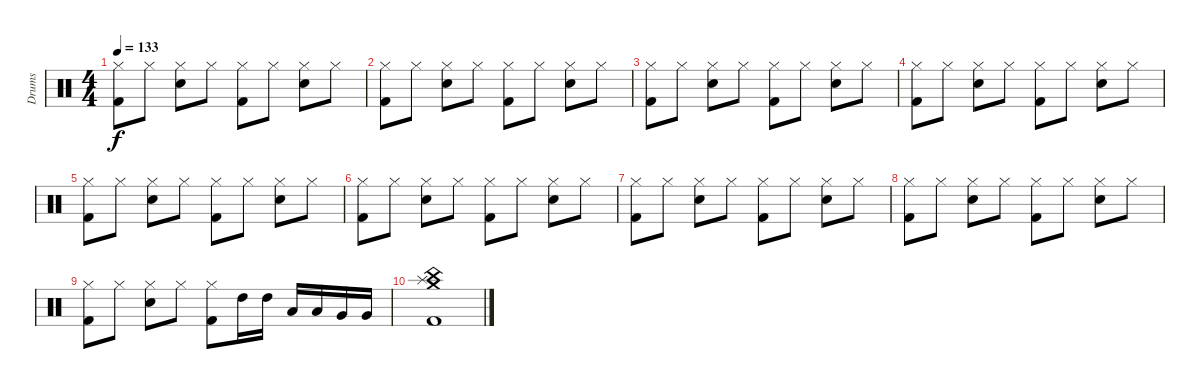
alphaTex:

\track ("Drums" "Drums") {instrument percussion}
\staff {score}
\articulation defaults
\ts (4 4)
\tempo 133
\clef neutral
\ks c
("Kick (hit) 2" "Hi-Hat (closed)").8{dy f} "Hi-Hat (closed)".8 ("Snare (hit) 2" "Hi-Hat (closed)").8 "Hi-Hat (closed)".8 ("Kick (hit) 2" "Hi-Hat (closed)").8 "Hi-Hat (closed)".8 ("Snare (hit) 2" "Hi-Hat (closed)").8 "Hi-Hat (closed)".8 |
("Kick (hit) 2" "Hi-Hat (closed)").8 "Hi-Hat (closed)".8 ("Snare (hit) 2" "Hi-Hat (closed)").8 "Hi-Hat (closed)".8 ("Kick (hit) 2" "Hi-Hat (closed)").8 "Hi-Hat (closed)".8 ("Snare (hit) 2" "Hi-Hat (closed)").8 "Hi-Hat (closed)".8 |
("Kick (hit) 2" "Hi-Hat (closed)").8 "Hi-Hat (closed)".8 ("Snare (hit) 2" "Hi-Hat (closed)").8 "Hi-Hat (closed)".8 ("Kick (hit) 2" "Hi-Hat (closed)").8 "Hi-Hat (closed)".8 ("Snare (hit) 2" "Hi-Hat (closed)").8 "Hi-Hat (closed)".8 |
("Kick (hit) 2" "Hi-Hat (closed)").8 "Hi-Hat (closed)".8 ("Snare (hit) 2" "Hi-Hat (closed)").8 "Hi-Hat (closed)".8 ("Kick (hit) 2" "Hi-Hat (closed)").8 "Hi-Hat (closed)".8 ("Snare (hit) 2" "Hi-Hat (closed)").8 "Hi-Hat (closed)".8 |
("Kick (hit) 2" "Hi-Hat (closed)").8 "Hi-Hat (closed)".8 ("Snare (hit) 2" "Hi-Hat (closed)").8 "Hi-Hat (closed)".8 ("Kick (hit) 2" "Hi-Hat (closed)").8 "Hi-Hat (closed)".8 ("Snare (hit) 2" "Hi-Hat (closed)").8 "Hi-Hat (closed)".8 |
("Kick (hit) 2" "Hi-Hat (closed)").8 "Hi-Hat (closed)".8 ("Snare (hit) 2" "Hi-Hat (closed)").8 "Hi-Hat (closed)".8 ("Kick (hit) 2" "Hi-Hat (closed)").8 "Hi-Hat (closed)".8 ("Snare (hit) 2" "Hi-Hat (closed)").8 "Hi-Hat (closed)".8 |
("Kick (hit) 2" "Hi-Hat (closed)").8 "Hi-Hat (closed)".8 ("Snare (hit) 2" "Hi-Hat (closed)").8 "Hi-Hat (closed)".8 ("Kick (hit) 2" "Hi-Hat (closed)").8 "Hi-Hat (closed)".8 ("Snare (hit) 2" "Hi-Hat (closed)").8 "Hi-Hat (closed)".8 |
("Kick (hit) 2" "Hi-Hat (closed)").8 "Hi-Hat (closed)".8 ("Snare (hit) 2" "Hi-Hat (closed)").8 "Hi-Hat (closed)".8 ("Kick (hit) 2" "Hi-Hat (closed)").8 "Hi-Hat (closed)".8 ("Snare (hit) 2" "Hi-Hat (closed)").8 "Hi-Hat (closed)".8 |
("Kick (hit) 2" "Hi-Hat (closed)").8 "Hi-Hat (closed)".8 ("Snare (hit) 2" "Hi-Hat (closed)").8 "Hi-Hat (closed)".8 ("Kick (hit) 2" "Hi-Hat (closed)").8 "High Tom (hit)".16 "High Tom (hit)".16 "Low Tom (hit)".16 "Low Tom (hit)".16 "Very Low Tom (hit)".16 "Very Low Tom (hit)".16 |
("Kick (hit) 2" "Crash medium (hit)" "China (hit)" "Splash (hit)").1
